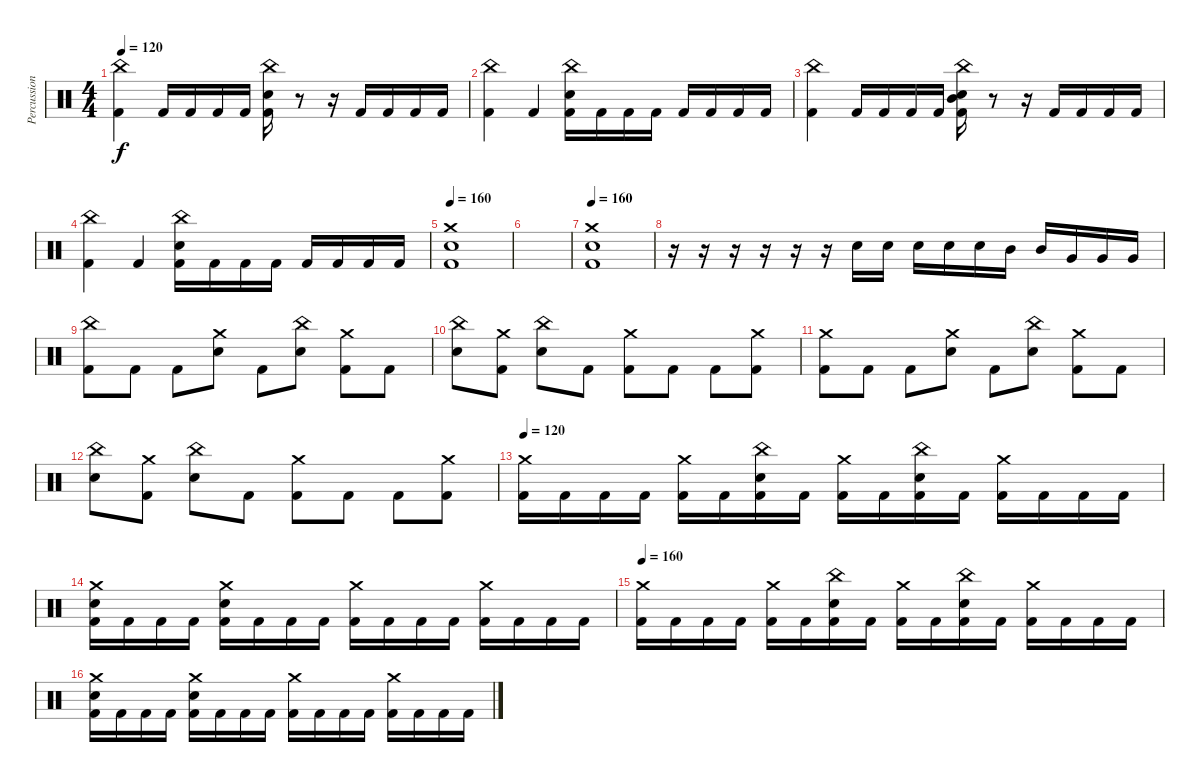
\track ("Percussion" "Percussion") {instrument percussion}
\staff {score}
\articulation defaults
\ts (4 4)
\tempo 120
\clef neutral
\ks c
("China (hit)" "Kick (hit) 2").4{dy f} "Kick (hit) 2".16 "Kick (hit) 2".16 "Kick (hit) 2".16 "Kick (hit) 2".16 ("China (hit)" "Snare (hit) 2" "Kick (hit) 2").16 r.8 r.16 "Kick (hit) 2".16 "Kick (hit) 2".16 "Kick (hit) 2".16 "Kick (hit) 2".16 |
("China (hit)" "Kick (hit) 2").4 "Kick (hit) 2".4 ("China (hit)" "Snare (hit) 2" "Kick (hit) 2").16 "Kick (hit) 2".16 "Kick (hit) 2".16 "Kick (hit) 2".16 "Kick (hit) 2".16 "Kick (hit) 2".16 "Kick (hit) 2".16 "Kick (hit) 2".16 |
("China (hit)" "Kick (hit) 2").4 "Kick (hit) 2".16 "Kick (hit) 2".16 "Kick (hit) 2".16 "Kick (hit) 2".16 ("Mid Tom (hit)" "China (hit)" "Snare (hit) 2" "Kick (hit) 2").16 r.8 r.16 "Kick (hit) 2".16 "Kick (hit) 2".16 "Kick (hit) 2".16 "Kick (hit) 2".16 |
("China (hit)" "Kick (hit) 2").4 "Kick (hit) 2".4 ("China (hit)" "Snare (hit) 2" "Kick (hit) 2").16 "Kick (hit) 2".16 "Kick (hit) 2".16 "Kick (hit) 2".16 "Kick (hit) 2".16 "Kick (hit) 2".16 "Kick (hit) 2".16 "Kick (hit) 2".16 |
\tempo 160
("Crash medium (hit)" "Snare (hit) 2" "Kick (hit) 2").1 |
|
\tempo 160
("Crash medium (hit)" "Snare (hit) 2" "Kick (hit) 2").1 |
r.16 r.16 r.16 r.16 r.16 r.16 "Snare (hit) 2".16 "Snare (hit) 2".16 "Snare (hit) 2".16 "Snare (hit) 2".16 "Snare (hit) 2".16 "Mid Tom (hit)".16 "Mid Tom (hit)".16 "Very Low Tom (hit)".16 "Very Low Tom (hit)".16 "Very Low Tom (hit)".16 |
("China (hit)" "Kick (hit) 2").8 "Kick (hit) 2".8 "Kick (hit) 2".8 ("Crash medium (hit)" "Snare (hit) 2").8 "Kick (hit) 2".8 ("China (hit)" "Snare (hit) 2").8 ("Crash medium (hit)" "Kick (hit) 2").8 "Kick (hit) 2".8 |
("China (hit)" "Snare (hit) 2").8 ("Crash medium (hit)" "Kick (hit) 2").8 ("China (hit)" "Snare (hit) 2").8 "Kick (hit) 2".8 ("Crash medium (hit)" "Kick (hit) 2").8 "Kick (hit) 2".8 "Kick (hit) 2".8 ("Crash medium (hit)" "Kick (hit) 2").8 |
("Crash medium (hit)" "Kick (hit) 2").8 "Kick (hit) 2".8 "Kick (hit) 2".8 ("Crash medium (hit)" "Snare (hit) 2").8 "Kick (hit) 2".8 ("China (hit)" "Snare (hit) 2").8 ("Crash medium (hit)" "Kick (hit) 2").8 "Kick (hit) 2".8 |
("China (hit)" "Snare (hit) 2").8 ("Crash medium (hit)" "Kick (hit) 2").8 ("China (hit)" "Snare (hit) 2").8 "Kick (hit) 2".8 ("Crash medium (hit)" "Kick (hit) 2").8 "Kick (hit) 2".8 "Kick (hit) 2".8 ("Crash medium (hit)" "Kick (hit) 2").8 |
\tempo 160
\tempo 120
("Crash medium (hit)" "Kick (hit) 2").16 "Kick (hit) 2".16 "Kick (hit) 2".16 "Kick (hit) 2".16 ("Crash medium (hit)" "Kick (hit) 2").16 "Kick (hit) 2".16 ("China (hit)" "Snare (hit) 2" "Kick (hit) 2").16 "Kick (hit) 2".16 ("Crash medium (hit)" "Kick (hit) 2").16 "Kick (hit) 2".16 ("China (hit)" "Snare (hit) 2" "Kick (hit) 2").16 "Kick (hit) 2".16 ("Crash medium (hit)" "Kick (hit) 2").16 "Kick (hit) 2".16 "Kick (hit) 2".16 "Kick (hit) 2".16 |
("Crash medium (hit)" "Snare (hit) 2" "Kick (hit) 2").16 "Kick (hit) 2".16 "Kick (hit) 2".16 "Kick (hit) 2".16 ("Crash medium (hit)" "Snare (hit) 2" "Kick (hit) 2").16 "Kick (hit) 2".16 "Kick (hit) 2".16 "Kick (hit) 2".16 ("Crash medium (hit)" "Kick (hit) 2").16 "Kick (hit) 2".16 "Kick (hit) 2".16 "Kick (hit) 2".16 ("Crash medium (hit)" "Kick (hit) 2").16 "Kick (hit) 2".16 "Kick (hit) 2".16 "Kick (hit) 2".16 |
\tempo 160
("Crash medium (hit)" "Kick (hit) 2").16 "Kick (hit) 2".16 "Kick (hit) 2".16 "Kick (hit) 2".16 ("Crash medium (hit)" "Kick (hit) 2").16 "Kick (hit) 2".16 ("China (hit)" "Snare (hit) 2" "Kick (hit) 2").16 "Kick (hit) 2".16 ("Crash medium (hit)" "Kick (hit) 2").16 "Kick (hit) 2".16 ("China (hit)" "Snare (hit) 2" "Kick (hit) 2").16 "Kick (hit) 2".16 ("Crash medium (hit)" "Kick (hit) 2").16 "Kick (hit) 2".16 "Kick (hit) 2".16 "Kick (hit) 2".16 |
("Crash medium (hit)" "Snare (hit) 2" "Kick (hit) 2").16 "Kick (hit) 2".16 "Kick (hit) 2".16 "Kick (hit) 2".16 ("Crash medium (hit)" "Snare (hit) 2" "Kick (hit) 2").16 "Kick (hit) 2".16 "Kick (hit) 2".16 "Kick (hit) 2".16 ("Crash medium (hit)" "Kick (hit) 2").16 "Kick (hit) 2".16 "Kick (hit) 2".16 "Kick (hit) 2".16 ("Crash medium (hit)" "Kick (hit) 2").16 "Kick (hit) 2".16 "Kick (hit) 2".16 "Kick (hit) 2".16
